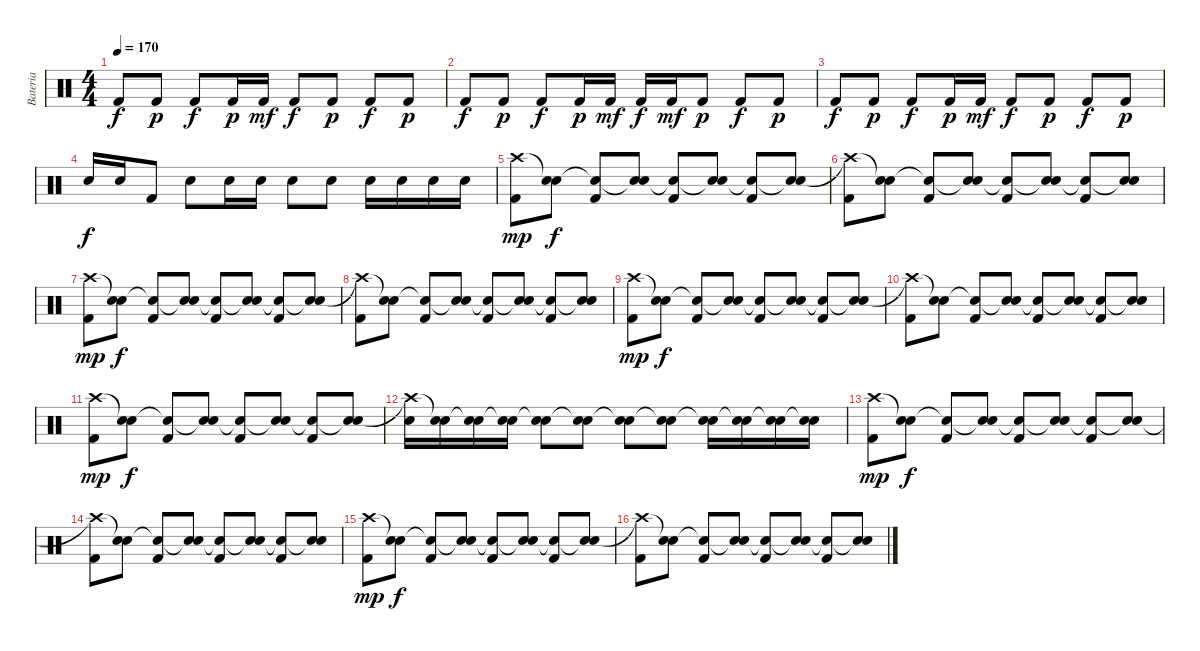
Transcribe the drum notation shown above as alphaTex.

\track ("Bateria" "Bateria") {instrument percussion}
\staff {score}
\articulation defaults
\ts (4 4)
\tempo 170
\clef neutral
\ks c "Kick (hit) 2".8{dy f} "Kick (hit) 2".8{dy p} "Kick (hit) 2".8{dy f} "Kick (hit) 2".16{dy p} "Kick (hit) 2".16{dy mf} "Kick (hit) 2".8{dy f} "Kick (hit) 2".8{dy p} "Kick (hit) 2".8{dy f} "Kick (hit) 2".8{dy p}
|
"Kick (hit) 2".8{dy f} "Kick (hit) 2".8{dy p} "Kick (hit) 2".8{dy f} "Kick (hit) 2".16{dy p} "Kick (hit) 2".16{dy mf} "Kick (hit) 2".16{dy f} "Kick (hit) 2".16{dy mf} "Kick (hit) 2".8{dy p} "Kick (hit) 2".8{dy f} "Kick (hit) 2".8{dy p} |
"Kick (hit) 2".8{dy f} "Kick (hit) 2".8{dy p} "Kick (hit) 2".8{dy f} "Kick (hit) 2".16{dy p} "Kick (hit) 2".16{dy mf} "Kick (hit) 2".8{dy f} "Kick (hit) 2".8{dy p} "Kick (hit) 2".8{dy f} "Kick (hit) 2".8{dy p} |
"Electric Snare (hit)".16{dy f} "Electric Snare (hit)".16 "Kick (hit) 2".8 "Electric Snare (hit)".8 "Electric Snare (hit)".16 "Electric Snare (hit)".16 "Electric Snare (hit)".8 "Electric Snare (hit)".8 "Electric Snare (hit)".16 "Electric Snare (hit)".16 "Electric Snare (hit)".16 "Electric Snare (hit)".16 |
("Kick (hit) 2" "Crash high (hit)").8{dy mp} ("Electric Snare (hit)" "Snare (hit)"{t}).8{dy f} ("Kick (hit) 2" "Snare (hit)"{t}).8 ("Electric Snare (hit)" "Snare (hit)"{t}).8 ("Kick (hit) 2" "Snare (hit)"{t}).8 ("Electric Snare (hit)" "Snare (hit)"{t}).8 ("Kick (hit) 2" "Snare (hit)"{t}).8 ("Electric Snare (hit)" "Snare (hit)"{t}).8 |
("Kick (hit) 2" "Crash high (hit)"{t}).8 ("Electric Snare (hit)" "Snare (hit)"{t}).8 ("Kick (hit) 2" "Snare (hit)"{t}).8 ("Electric Snare (hit)" "Snare (hit)"{t}).8 ("Kick (hit) 2" "Snare (hit)"{t}).8 ("Electric Snare (hit)" "Snare (hit)"{t}).8 ("Kick (hit) 2" "Snare (hit)"{t}).8 ("Electric Snare (hit)" "Snare (hit)"{t}).8 |
("Kick (hit) 2" "Crash high (hit)").8{dy mp} ("Electric Snare (hit)" "Snare (hit)"{t}).8{dy f} ("Kick (hit) 2" "Snare (hit)"{t}).8 ("Electric Snare (hit)" "Snare (hit)"{t}).8 ("Kick (hit) 2" "Snare (hit)"{t}).8 ("Electric Snare (hit)" "Snare (hit)"{t}).8 ("Kick (hit) 2" "Snare (hit)"{t}).8 ("Electric Snare (hit)" "Snare (hit)"{t}).8 |
("Kick (hit) 2" "Crash high (hit)"{t}).8 ("Electric Snare (hit)" "Snare (hit)"{t}).8 ("Kick (hit) 2" "Snare (hit)"{t}).8 ("Electric Snare (hit)" "Snare (hit)"{t}).8 ("Kick (hit) 2" "Snare (hit)"{t}).8 ("Electric Snare (hit)" "Snare (hit)"{t}).8 ("Kick (hit) 2" "Snare (hit)"{t}).8 ("Electric Snare (hit)" "Snare (hit)"{t}).8 |
("Kick (hit) 2" "Crash high (hit)").8{dy mp} ("Electric Snare (hit)" "Snare (hit)"{t}).8{dy f} ("Kick (hit) 2" "Snare (hit)"{t}).8 ("Electric Snare (hit)" "Snare (hit)"{t}).8 ("Kick (hit) 2" "Snare (hit)"{t}).8 ("Electric Snare (hit)" "Snare (hit)"{t}).8 ("Kick (hit) 2" "Snare (hit)"{t}).8 ("Electric Snare (hit)" "Snare (hit)"{t}).8 |
("Kick (hit) 2" "Crash high (hit)"{t}).8 ("Electric Snare (hit)" "Snare (hit)"{t}).8 ("Kick (hit) 2" "Snare (hit)"{t}).8 ("Electric Snare (hit)" "Snare (hit)"{t}).8 ("Kick (hit) 2" "Snare (hit)"{t}).8 ("Electric Snare (hit)" "Snare (hit)"{t}).8 ("Kick (hit) 2" "Snare (hit)"{t}).8 ("Electric Snare (hit)" "Snare (hit)"{t}).8 |
("Kick (hit) 2" "Crash high (hit)").8{dy mp} ("Electric Snare (hit)" "Snare (hit)"{t}).8{dy f} ("Kick (hit) 2" "Snare (hit)"{t}).8 ("Electric Snare (hit)" "Snare (hit)"{t}).8 ("Kick (hit) 2" "Snare (hit)"{t}).8 ("Electric Snare (hit)" "Snare (hit)"{t}).8 ("Kick (hit) 2" "Snare (hit)"{t}).8 ("Electric Snare (hit)" "Snare (hit)"{t}).8 |
("Electric Snare (hit)" "Crash high (hit)"{t}).16 ("Electric Snare (hit)" "Snare (hit)"{t}).16 ("Electric Snare (hit)" "Snare (hit)"{t}).16 ("Electric Snare (hit)" "Snare (hit)"{t}).16 ("Electric Snare (hit)" "Snare (hit)"{t}).8 ("Electric Snare (hit)" "Snare (hit)"{t}).8 ("Electric Snare (hit)" "Snare (hit)"{t}).8 ("Electric Snare (hit)" "Snare (hit)"{t}).8 ("Electric Snare (hit)" "Snare (hit)"{t}).16 ("Electric Snare (hit)" "Snare (hit)"{t}).16 ("Electric Snare (hit)" "Snare (hit)"{t}).16 ("Electric Snare (hit)" "Snare (hit)"{t}).16 |
("Kick (hit) 2" "Crash high (hit)").8{dy mp} ("Electric Snare (hit)" "Snare (hit)"{t}).8{dy f} ("Kick (hit) 2" "Snare (hit)"{t}).8 ("Electric Snare (hit)" "Snare (hit)"{t}).8 ("Kick (hit) 2" "Snare (hit)"{t}).8 ("Electric Snare (hit)" "Snare (hit)"{t}).8 ("Kick (hit) 2" "Snare (hit)"{t}).8 ("Electric Snare (hit)" "Snare (hit)"{t}).8 |
("Kick (hit) 2" "Crash high (hit)"{t}).8 ("Electric Snare (hit)" "Snare (hit)"{t}).8 ("Kick (hit) 2" "Snare (hit)"{t}).8 ("Electric Snare (hit)" "Snare (hit)"{t}).8 ("Kick (hit) 2" "Snare (hit)"{t}).8 ("Electric Snare (hit)" "Snare (hit)"{t}).8 ("Kick (hit) 2" "Snare (hit)"{t}).8 ("Electric Snare (hit)" "Snare (hit)"{t}).8 |
("Kick (hit) 2" "Crash high (hit)").8{dy mp} ("Electric Snare (hit)" "Snare (hit)"{t}).8{dy f} ("Kick (hit) 2" "Snare (hit)"{t}).8 ("Electric Snare (hit)" "Snare (hit)"{t}).8 ("Kick (hit) 2" "Snare (hit)"{t}).8 ("Electric Snare (hit)" "Snare (hit)"{t}).8 ("Kick (hit) 2" "Snare (hit)"{t}).8 ("Electric Snare (hit)" "Snare (hit)"{t}).8 |
("Kick (hit) 2" "Crash high (hit)"{t}).8 ("Electric Snare (hit)" "Snare (hit)"{t}).8 ("Kick (hit) 2" "Snare (hit)"{t}).8 ("Electric Snare (hit)" "Snare (hit)"{t}).8 ("Kick (hit) 2" "Snare (hit)"{t}).8 ("Electric Snare (hit)" "Snare (hit)"{t}).8 ("Kick (hit) 2" "Snare (hit)"{t}).8 ("Electric Snare (hit)" "Snare (hit)"{t}).8
